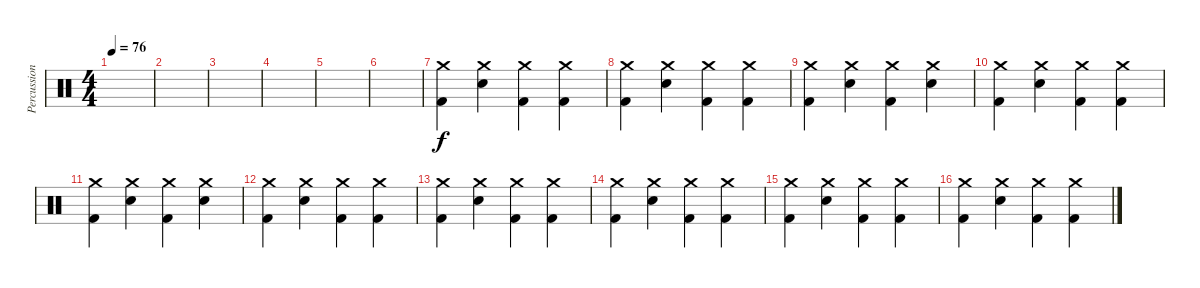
\track ("Percussion" "Percussion") {instrument percussion}
\staff {score}
\articulation defaults
\ts (4 4)
\tempo 76
\clef neutral
\ks c
|
|
|
|
|
|
("Crash medium (hit)" "Kick (hit) 2").4 ("Crash medium (hit)" "Snare (hit) 2").4 ("Crash medium (hit)" "Kick (hit) 2").4 ("Crash medium (hit)" "Kick (hit) 2").4 |
("Crash medium (hit)" "Kick (hit) 2").4 ("Crash medium (hit)" "Snare (hit) 2").4 ("Crash medium (hit)" "Kick (hit) 2").4 ("Crash medium (hit)" "Kick (hit) 2").4 |
("Crash medium (hit)" "Kick (hit) 2").4 ("Crash medium (hit)" "Snare (hit) 2").4 ("Crash medium (hit)" "Kick (hit) 2").4 ("Crash medium (hit)" "Snare (hit) 2").4 |
("Crash medium (hit)" "Kick (hit) 2").4 ("Crash medium (hit)" "Snare (hit) 2").4 ("Crash medium (hit)" "Kick (hit) 2").4 ("Crash medium (hit)" "Kick (hit) 2").4 |
("Crash medium (hit)" "Kick (hit) 2").4 ("Crash medium (hit)" "Snare (hit) 2").4 ("Crash medium (hit)" "Kick (hit) 2").4 ("Crash medium (hit)" "Snare (hit) 2").4 |
("Crash medium (hit)" "Kick (hit) 2").4 ("Crash medium (hit)" "Snare (hit) 2").4 ("Crash medium (hit)" "Kick (hit) 2").4 ("Crash medium (hit)" "Kick (hit) 2").4 |
("Crash medium (hit)" "Kick (hit) 2").4 ("Crash medium (hit)" "Snare (hit) 2").4 ("Crash medium (hit)" "Kick (hit) 2").4 ("Crash medium (hit)" "Kick (hit) 2").4 |
("Crash medium (hit)" "Kick (hit) 2").4 ("Crash medium (hit)" "Snare (hit) 2").4 ("Crash medium (hit)" "Kick (hit) 2").4 ("Crash medium (hit)" "Kick (hit) 2").4 |
("Crash medium (hit)" "Kick (hit) 2").4 ("Crash medium (hit)" "Snare (hit) 2").4 ("Crash medium (hit)" "Kick (hit) 2").4 ("Crash medium (hit)" "Kick (hit) 2").4 |
("Crash medium (hit)" "Kick (hit) 2").4 ("Crash medium (hit)" "Snare (hit) 2").4 ("Crash medium (hit)" "Kick (hit) 2").4 ("Crash medium (hit)" "Kick (hit) 2").4
